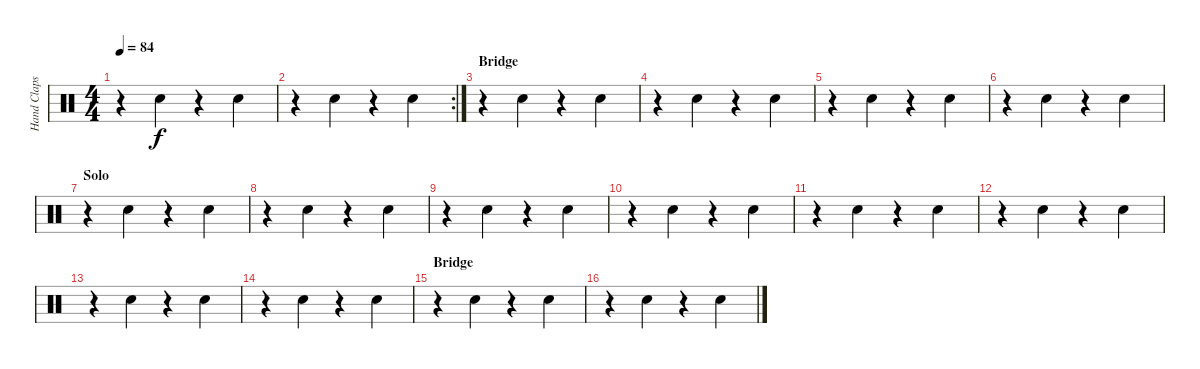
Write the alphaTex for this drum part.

\track ("Hand Claps" "Hand Claps") {instrument percussion}
\staff {score}
\articulation defaults
\ts (4 4)
\tempo 84
\clef neutral
\ks c
r.4{dy f} "Hand Clap (hit)".4 r.4 "Hand Clap (hit)".4 |
\rc 2
r.4 "Hand Clap (hit)".4 r.4 "Hand Clap (hit)".4 |
\section ("" "Bridge")
r.4 "Hand Clap (hit)".4 r.4 "Hand Clap (hit)".4 |
r.4 "Hand Clap (hit)".4 r.4 "Hand Clap (hit)".4 |
r.4 "Hand Clap (hit)".4 r.4 "Hand Clap (hit)".4 |
r.4 "Hand Clap (hit)".4 r.4 "Hand Clap (hit)".4 |
\section ("" "Solo")
r.4 "Hand Clap (hit)".4 r.4 "Hand Clap (hit)".4 |
r.4 "Hand Clap (hit)".4 r.4 "Hand Clap (hit)".4 |
r.4 "Hand Clap (hit)".4 r.4 "Hand Clap (hit)".4 |
r.4 "Hand Clap (hit)".4 r.4 "Hand Clap (hit)".4 |
r.4 "Hand Clap (hit)".4 r.4 "Hand Clap (hit)".4 |
r.4 "Hand Clap (hit)".4 r.4 "Hand Clap (hit)".4 |
r.4 "Hand Clap (hit)".4 r.4 "Hand Clap (hit)".4 |
r.4 "Hand Clap (hit)".4 r.4 "Hand Clap (hit)".4 |
\section ("" "Bridge")
r.4 "Hand Clap (hit)".4 r.4 "Hand Clap (hit)".4 |
r.4 "Hand Clap (hit)".4 r.4 "Hand Clap (hit)".4
